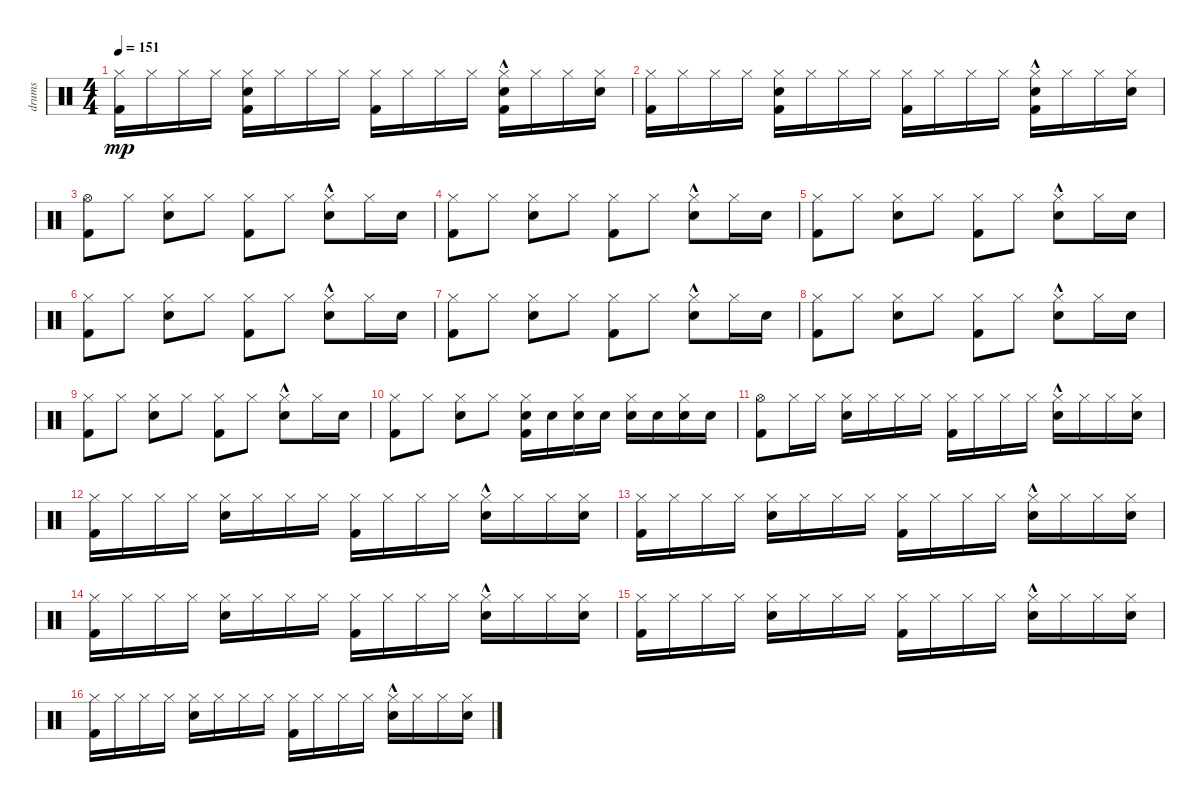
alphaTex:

\track ("drums" "drums") {instrument percussion}
\staff {score}
\articulation defaults
\ts (4 4)
\tempo 151
\clef neutral
\ks c
("Hi-Hat (closed)" "Kick (hit) 2").16{dy mp} "Hi-Hat (closed)".16 "Hi-Hat (closed)".16 "Hi-Hat (closed)".16 ("Hi-Hat (closed)" "Kick (hit) 2" "Snare (hit) 2").16 "Hi-Hat (closed)".16 "Hi-Hat (closed)".16 "Hi-Hat (closed)".16 ("Hi-Hat (closed)" "Kick (hit) 2").16 "Hi-Hat (closed)".16 "Hi-Hat (closed)".16 "Hi-Hat (closed)".16 ("Hi-Hat (closed)" "Kick (hit) 2"{hac} "Snare (hit) 2"{hac}).16 "Hi-Hat (closed)".16 "Hi-Hat (closed)".16 ("Hi-Hat (closed)" "Snare (hit) 2").16 |
("Hi-Hat (closed)" "Kick (hit) 2").16 "Hi-Hat (closed)".16 "Hi-Hat (closed)".16 "Hi-Hat (closed)".16 ("Hi-Hat (closed)" "Kick (hit) 2" "Snare (hit) 2").16 "Hi-Hat (closed)".16 "Hi-Hat (closed)".16 "Hi-Hat (closed)".16 ("Hi-Hat (closed)" "Kick (hit) 2").16 "Hi-Hat (closed)".16 "Hi-Hat (closed)".16 "Hi-Hat (closed)".16 ("Hi-Hat (closed)" "Kick (hit) 2"{hac} "Snare (hit) 2"{hac}).16 "Hi-Hat (closed)".16 "Hi-Hat (closed)".16 ("Hi-Hat (closed)" "Snare (hit) 2").16 |
("Hi-Hat (open)" "Kick (hit) 2").8 "Hi-Hat (closed)".8 ("Hi-Hat (closed)" "Snare (hit) 2").8 "Hi-Hat (closed)".8 ("Hi-Hat (closed)" "Kick (hit) 2").8 "Hi-Hat (closed)".8 ("Hi-Hat (closed)" "Snare (hit) 2"{hac}).8 "Hi-Hat (closed)".16 "Snare (hit) 2".16 |
("Hi-Hat (closed)" "Kick (hit) 2").8 "Hi-Hat (closed)".8 ("Hi-Hat (closed)" "Snare (hit) 2").8 "Hi-Hat (closed)".8 ("Hi-Hat (closed)" "Kick (hit) 2").8 "Hi-Hat (closed)".8 ("Hi-Hat (closed)" "Snare (hit) 2"{hac}).8 "Hi-Hat (closed)".16 "Snare (hit) 2".16 |
("Hi-Hat (closed)" "Kick (hit) 2").8 "Hi-Hat (closed)".8 ("Hi-Hat (closed)" "Snare (hit) 2").8 "Hi-Hat (closed)".8 ("Hi-Hat (closed)" "Kick (hit) 2").8 "Hi-Hat (closed)".8 ("Hi-Hat (closed)" "Snare (hit) 2"{hac}).8 "Hi-Hat (closed)".16 "Snare (hit) 2".16 |
("Hi-Hat (closed)" "Kick (hit) 2").8 "Hi-Hat (closed)".8 ("Hi-Hat (closed)" "Snare (hit) 2").8 "Hi-Hat (closed)".8 ("Hi-Hat (closed)" "Kick (hit) 2").8 "Hi-Hat (closed)".8 ("Hi-Hat (closed)" "Snare (hit) 2"{hac}).8 "Hi-Hat (closed)".16 "Snare (hit) 2".16 |
("Hi-Hat (closed)" "Kick (hit) 2").8 "Hi-Hat (closed)".8 ("Hi-Hat (closed)" "Snare (hit) 2").8 "Hi-Hat (closed)".8 ("Hi-Hat (closed)" "Kick (hit) 2").8 "Hi-Hat (closed)".8 ("Hi-Hat (closed)" "Snare (hit) 2"{hac}).8 "Hi-Hat (closed)".16 "Snare (hit) 2".16 |
("Hi-Hat (closed)" "Kick (hit) 2").8 "Hi-Hat (closed)".8 ("Hi-Hat (closed)" "Snare (hit) 2").8 "Hi-Hat (closed)".8 ("Hi-Hat (closed)" "Kick (hit) 2").8 "Hi-Hat (closed)".8 ("Hi-Hat (closed)" "Snare (hit) 2"{hac}).8 "Hi-Hat (closed)".16 "Snare (hit) 2".16 |
("Hi-Hat (closed)" "Kick (hit) 2").8 "Hi-Hat (closed)".8 ("Hi-Hat (closed)" "Snare (hit) 2").8 "Hi-Hat (closed)".8 ("Hi-Hat (closed)" "Kick (hit) 2").8 "Hi-Hat (closed)".8 ("Hi-Hat (closed)" "Snare (hit) 2"{hac}).8 "Hi-Hat (closed)".16 "Snare (hit) 2".16 |
("Hi-Hat (closed)" "Kick (hit) 2").8 "Hi-Hat (closed)".8 ("Hi-Hat (closed)" "Snare (hit) 2").8 "Hi-Hat (closed)".8 ("Hi-Hat (closed)" "Kick (hit) 2" "Snare (hit) 2").16 "Snare (hit) 2".16 ("Hi-Hat (closed)" "Snare (hit) 2").16 "Snare (hit) 2".16 ("Hi-Hat (closed)" "Snare (hit) 2").16 "Snare (hit) 2".16 ("Hi-Hat (closed)" "Snare (hit) 2").16 "Snare (hit) 2".16 |
("Hi-Hat (open)" "Kick (hit) 2").8 "Hi-Hat (closed)".16 "Hi-Hat (closed)".16 ("Hi-Hat (closed)" "Snare (hit) 2").16 "Hi-Hat (closed)".16 "Hi-Hat (closed)".16 "Hi-Hat (closed)".16 ("Hi-Hat (closed)" "Kick (hit) 2").16 "Hi-Hat (closed)".16 "Hi-Hat (closed)".16 "Hi-Hat (closed)".16 ("Hi-Hat (closed)" "Snare (hit) 2"{hac}).16 "Hi-Hat (closed)".16 "Hi-Hat (closed)".16 ("Hi-Hat (closed)" "Snare (hit) 2").16 |
("Hi-Hat (closed)" "Kick (hit) 2").16 "Hi-Hat (closed)".16 "Hi-Hat (closed)".16 "Hi-Hat (closed)".16 ("Hi-Hat (closed)" "Snare (hit) 2").16 "Hi-Hat (closed)".16 "Hi-Hat (closed)".16 "Hi-Hat (closed)".16 ("Hi-Hat (closed)" "Kick (hit) 2").16 "Hi-Hat (closed)".16 "Hi-Hat (closed)".16 "Hi-Hat (closed)".16 ("Hi-Hat (closed)" "Snare (hit) 2"{hac}).16 "Hi-Hat (closed)".16 "Hi-Hat (closed)".16 ("Hi-Hat (closed)" "Snare (hit) 2").16 |
("Hi-Hat (closed)" "Kick (hit) 2").16 "Hi-Hat (closed)".16 "Hi-Hat (closed)".16 "Hi-Hat (closed)".16 ("Hi-Hat (closed)" "Snare (hit) 2").16 "Hi-Hat (closed)".16 "Hi-Hat (closed)".16 "Hi-Hat (closed)".16 ("Hi-Hat (closed)" "Kick (hit) 2").16 "Hi-Hat (closed)".16 "Hi-Hat (closed)".16 "Hi-Hat (closed)".16 ("Hi-Hat (closed)" "Snare (hit) 2"{hac}).16 "Hi-Hat (closed)".16 "Hi-Hat (closed)".16 ("Hi-Hat (closed)" "Snare (hit) 2").16 |
("Hi-Hat (closed)" "Kick (hit) 2").16 "Hi-Hat (closed)".16 "Hi-Hat (closed)".16 "Hi-Hat (closed)".16 ("Hi-Hat (closed)" "Snare (hit) 2").16 "Hi-Hat (closed)".16 "Hi-Hat (closed)".16 "Hi-Hat (closed)".16 ("Hi-Hat (closed)" "Kick (hit) 2").16 "Hi-Hat (closed)".16 "Hi-Hat (closed)".16 "Hi-Hat (closed)".16 ("Hi-Hat (closed)" "Snare (hit) 2"{hac}).16 "Hi-Hat (closed)".16 "Hi-Hat (closed)".16 ("Hi-Hat (closed)" "Snare (hit) 2").16 |
("Hi-Hat (closed)" "Kick (hit) 2").16 "Hi-Hat (closed)".16 "Hi-Hat (closed)".16 "Hi-Hat (closed)".16 ("Hi-Hat (closed)" "Snare (hit) 2").16 "Hi-Hat (closed)".16 "Hi-Hat (closed)".16 "Hi-Hat (closed)".16 ("Hi-Hat (closed)" "Kick (hit) 2").16 "Hi-Hat (closed)".16 "Hi-Hat (closed)".16 "Hi-Hat (closed)".16 ("Hi-Hat (closed)" "Snare (hit) 2"{hac}).16 "Hi-Hat (closed)".16 "Hi-Hat (closed)".16 ("Hi-Hat (closed)" "Snare (hit) 2").16 |
("Hi-Hat (closed)" "Kick (hit) 2").16 "Hi-Hat (closed)".16 "Hi-Hat (closed)".16 "Hi-Hat (closed)".16 ("Hi-Hat (closed)" "Snare (hit) 2").16 "Hi-Hat (closed)".16 "Hi-Hat (closed)".16 "Hi-Hat (closed)".16 ("Hi-Hat (closed)" "Kick (hit) 2").16 "Hi-Hat (closed)".16 "Hi-Hat (closed)".16 "Hi-Hat (closed)".16 ("Hi-Hat (closed)" "Snare (hit) 2"{hac}).16 "Hi-Hat (closed)".16 "Hi-Hat (closed)".16 ("Hi-Hat (closed)" "Snare (hit) 2").16
